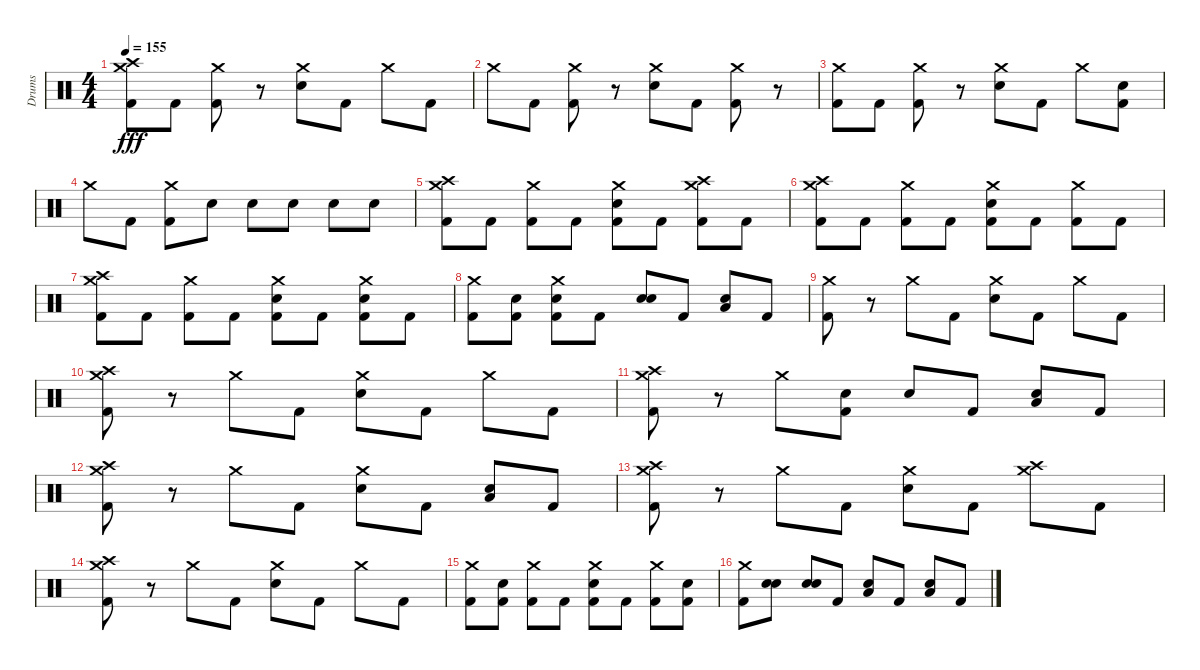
\track ("Drums" "Drums") {instrument percussion}
\staff {score}
\articulation defaults
\ts (4 4)
\tempo 155
\clef neutral
\ks c
("Crash high (hit)" "Crash medium (hit)" "Kick (hit) 2").8{dy fff} "Kick (hit) 2".8 ("Crash medium (hit)" "Kick (hit) 2").8 r.8 ("Crash medium (hit)" "Electric Snare (hit)").8 "Kick (hit) 2".8 "Crash medium (hit)".8 "Kick (hit) 2".8 |
"Crash medium (hit)".8 "Kick (hit) 2".8 ("Crash medium (hit)" "Kick (hit) 2").8 r.8 ("Crash medium (hit)" "Electric Snare (hit)").8 "Kick (hit) 2".8 ("Crash medium (hit)" "Kick (hit) 2").8 r.8 |
("Crash medium (hit)" "Kick (hit) 2").8 "Kick (hit) 2".8 ("Crash medium (hit)" "Kick (hit) 2").8 r.8 ("Crash medium (hit)" "Electric Snare (hit)").8 "Kick (hit) 2".8 "Crash medium (hit)".8 ("Electric Snare (hit)" "Kick (hit) 2").8 |
"Crash medium (hit)".8 "Kick (hit) 2".8 ("Crash medium (hit)" "Kick (hit) 2").8 "Electric Snare (hit)".8 "Electric Snare (hit)".8 "Electric Snare (hit)".8 "Electric Snare (hit)".8 "Electric Snare (hit)".8 |
("Crash high (hit)" "Crash medium (hit)" "Kick (hit) 2").8 "Kick (hit) 2".8 ("Crash medium (hit)" "Kick (hit) 2").8 "Kick (hit) 2".8 ("Crash medium (hit)" "Electric Snare (hit)" "Kick (hit) 2").8 "Kick (hit) 2".8 ("Crash high (hit)" "Crash medium (hit)" "Kick (hit) 2").8 "Kick (hit) 2".8 |
("Crash high (hit)" "Crash medium (hit)" "Kick (hit) 2").8 "Kick (hit) 2".8 ("Crash medium (hit)" "Kick (hit) 2").8 "Kick (hit) 2".8 ("Crash medium (hit)" "Electric Snare (hit)" "Kick (hit) 2").8 "Kick (hit) 2".8 ("Crash medium (hit)" "Kick (hit) 2").8 "Kick (hit) 2".8 |
("Crash high (hit)" "Crash medium (hit)" "Kick (hit) 2").8 "Kick (hit) 2".8 ("Crash medium (hit)" "Kick (hit) 2").8 "Kick (hit) 2".8 ("Crash medium (hit)" "Electric Snare (hit)" "Kick (hit) 2").8 "Kick (hit) 2".8 ("Crash medium (hit)" "Electric Snare (hit)" "Kick (hit) 2").8 "Kick (hit) 2".8 |
("Crash medium (hit)" "Kick (hit) 2").8 ("Electric Snare (hit)" "Kick (hit) 2").8 ("Crash medium (hit)" "Electric Snare (hit)" "Kick (hit) 2").8 "Kick (hit) 2".8 ("Electric Snare (hit)" "Electric Snare (hit)").8 "Kick (hit) 2".8 ("Low Floor Tom (hit)" "Electric Snare (hit)").8 "Kick (hit) 2".8 |
("Crash medium (hit)" "Kick (hit) 2").8 r.8 "Crash medium (hit)".8 "Kick (hit) 2".8 ("Crash medium (hit)" "Electric Snare (hit)").8 "Kick (hit) 2".8 "Crash medium (hit)".8 "Kick (hit) 2".8 |
("Crash high (hit)" "Crash medium (hit)" "Kick (hit) 2").8 r.8 "Crash medium (hit)".8 "Kick (hit) 2".8 ("Crash medium (hit)" "Electric Snare (hit)").8 "Kick (hit) 2".8 "Crash medium (hit)".8 "Kick (hit) 2".8 |
("Crash high (hit)" "Crash medium (hit)" "Kick (hit) 2").8 r.8 "Crash medium (hit)".8 ("Electric Snare (hit)" "Kick (hit) 2").8 "Electric Snare (hit)".8 "Kick (hit) 2".8 ("Low Floor Tom (hit)" "Electric Snare (hit)").8 "Kick (hit) 2".8 |
("Crash high (hit)" "Crash medium (hit)" "Kick (hit) 2").8 r.8 "Crash medium (hit)".8 "Kick (hit) 2".8 ("Crash medium (hit)" "Electric Snare (hit)").8 "Kick (hit) 2".8 ("Low Floor Tom (hit)" "Electric Snare (hit)").8 "Kick (hit) 2".8 |
("Crash high (hit)" "Crash medium (hit)" "Kick (hit) 2").8 r.8 "Crash medium (hit)".8 "Kick (hit) 2".8 ("Crash medium (hit)" "Electric Snare (hit)").8 "Kick (hit) 2".8 ("Crash high (hit)" "Crash medium (hit)").8 "Kick (hit) 2".8 |
("Crash high (hit)" "Crash medium (hit)" "Kick (hit) 2").8 r.8 "Crash medium (hit)".8 "Kick (hit) 2".8 ("Crash medium (hit)" "Electric Snare (hit)").8 "Kick (hit) 2".8 "Crash medium (hit)".8 "Kick (hit) 2".8 |
("Crash medium (hit)" "Kick (hit) 2").8 ("Electric Snare (hit)" "Kick (hit) 2").8 ("Crash medium (hit)" "Kick (hit) 2").8 "Kick (hit) 2".8 ("Crash medium (hit)" "Electric Snare (hit)" "Kick (hit) 2").8 "Kick (hit) 2".8 ("Crash medium (hit)" "Kick (hit) 2").8 ("Electric Snare (hit)" "Kick (hit) 2").8 |
("Crash medium (hit)" "Kick (hit) 2").8 ("Electric Snare (hit)" "Electric Snare (hit)").8 ("Electric Snare (hit)" "Electric Snare (hit)").8 "Kick (hit) 2".8 ("Low Floor Tom (hit)" "Electric Snare (hit)").8 "Kick (hit) 2".8 ("Low Floor Tom (hit)" "Electric Snare (hit)").8 "Kick (hit) 2".8
